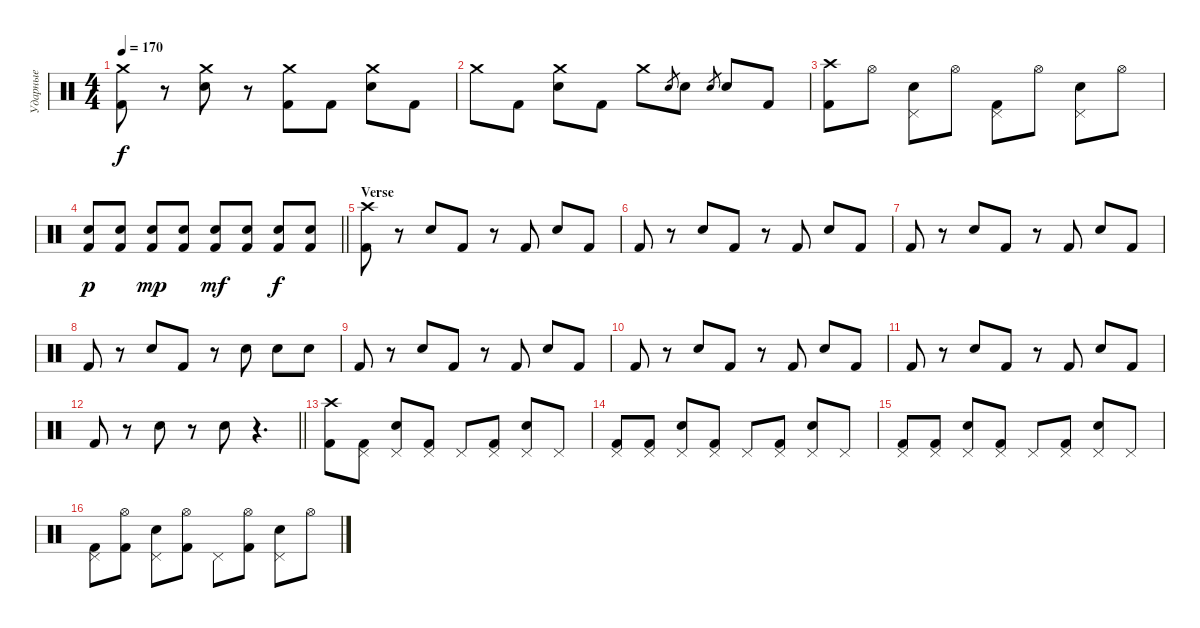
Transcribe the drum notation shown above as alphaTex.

\track ("Ударные" "Ударные") {instrument percussion}
\staff {score}
\articulation defaults
\ts (4 4)
\tempo 170
\clef neutral
\ks c
("Crash medium (hit)" "Kick (hit) 2").8{dy f} r.8 ("Crash medium (hit)" "Electric Snare (hit)").8 r.8 ("Crash medium (hit)" "Kick (hit) 2").8 "Kick (hit) 2".8 ("Crash medium (hit)" "Electric Snare (hit)").8 "Kick (hit) 2".8 |
"Crash medium (hit)".8 "Kick (hit) 2".8 ("Crash medium (hit)" "Electric Snare (hit)").8 "Kick (hit) 2".8 "Crash medium (hit)".8 "Electric Snare (hit)".8{gr} "Electric Snare (hit)".8 "Electric Snare (hit)".8{gr} "Electric Snare (hit)".8 "Kick (hit) 2".8 |
("Crash high (hit)" "Kick (hit) 2").8 "Hi-Hat (open)".8 ("Pedal Hi-Hat (hit)" "Electric Snare (hit)").8 "Hi-Hat (open)".8 ("Pedal Hi-Hat (hit)" "Kick (hit) 2").8 "Hi-Hat (open)".8 ("Pedal Hi-Hat (hit)" "Electric Snare (hit)").8 "Hi-Hat (open)".8 |
\barLineRight lightlight
("Electric Snare (hit)" "Kick (hit) 2").8{dy p} ("Electric Snare (hit)" "Kick (hit) 2").8 ("Electric Snare (hit)" "Kick (hit) 2").8{dy mp} ("Electric Snare (hit)" "Kick (hit) 2").8 ("Electric Snare (hit)" "Kick (hit) 2").8{dy mf} ("Electric Snare (hit)" "Kick (hit) 2").8 ("Electric Snare (hit)" "Kick (hit) 2").8{dy f} ("Electric Snare (hit)" "Kick (hit) 2").8 |
\section ("" "Verse")
("Crash high (hit)" "Kick (hit) 2").8 r.8 "Snare (hit) 2".8 "Kick (hit) 2".8 r.8 "Kick (hit) 2".8 "Snare (hit) 2".8 "Kick (hit) 2".8 |
"Kick (hit) 2".8 r.8 "Snare (hit) 2".8 "Kick (hit) 2".8 r.8 "Kick (hit) 2".8 "Snare (hit) 2".8 "Kick (hit) 2".8 |
"Kick (hit) 2".8 r.8 "Snare (hit) 2".8 "Kick (hit) 2".8 r.8 "Kick (hit) 2".8 "Snare (hit) 2".8 "Kick (hit) 2".8 |
"Kick (hit) 2".8 r.8 "Snare (hit) 2".8 "Kick (hit) 2".8 r.8 "Snare (hit) 2".8 "Snare (hit) 2".8 "Snare (hit) 2".8 |
"Kick (hit) 2".8 r.8 "Snare (hit) 2".8 "Kick (hit) 2".8 r.8 "Kick (hit) 2".8 "Snare (hit) 2".8 "Kick (hit) 2".8 |
"Kick (hit) 2".8 r.8 "Snare (hit) 2".8 "Kick (hit) 2".8 r.8 "Kick (hit) 2".8 "Snare (hit) 2".8 "Kick (hit) 2".8 |
"Kick (hit) 2".8 r.8 "Snare (hit) 2".8 "Kick (hit) 2".8 r.8 "Kick (hit) 2".8 "Snare (hit) 2".8 "Kick (hit) 2".8 |
\barLineRight lightlight "Kick (hit) 2".8
r.8 "Snare (hit) 2".8 r.8 "Snare (hit) 2".8 r.4{d} |
("Crash high (hit)" "Kick (hit) 2").8 ("Pedal Hi-Hat (hit)" "Kick (hit) 2").8 ("Pedal Hi-Hat (hit)" "Electric Snare (hit)").8 ("Pedal Hi-Hat (hit)" "Kick (hit) 2").8 "Pedal Hi-Hat (hit)".8 ("Pedal Hi-Hat (hit)" "Kick (hit) 2").8 ("Pedal Hi-Hat (hit)" "Electric Snare (hit)").8 "Pedal Hi-Hat (hit)".8 |
("Pedal Hi-Hat (hit)" "Kick (hit) 2").8 ("Pedal Hi-Hat (hit)" "Kick (hit) 2").8 ("Pedal Hi-Hat (hit)" "Electric Snare (hit)").8 ("Pedal Hi-Hat (hit)" "Kick (hit) 2").8 "Pedal Hi-Hat (hit)".8 ("Pedal Hi-Hat (hit)" "Kick (hit) 2").8 ("Pedal Hi-Hat (hit)" "Electric Snare (hit)").8 "Pedal Hi-Hat (hit)".8 |
("Pedal Hi-Hat (hit)" "Kick (hit) 2").8 ("Pedal Hi-Hat (hit)" "Kick (hit) 2").8 ("Pedal Hi-Hat (hit)" "Electric Snare (hit)").8 ("Pedal Hi-Hat (hit)" "Kick (hit) 2").8 "Pedal Hi-Hat (hit)".8 ("Pedal Hi-Hat (hit)" "Kick (hit) 2").8 ("Pedal Hi-Hat (hit)" "Electric Snare (hit)").8 "Pedal Hi-Hat (hit)".8 |
("Pedal Hi-Hat (hit)" "Kick (hit) 2").8 ("Hi-Hat (open)" "Kick (hit) 2").8 ("Pedal Hi-Hat (hit)" "Electric Snare (hit)").8 ("Hi-Hat (open)" "Kick (hit) 2").8 "Pedal Hi-Hat (hit)".8 ("Hi-Hat (open)" "Kick (hit) 2").8 ("Pedal Hi-Hat (hit)" "Electric Snare (hit)").8 "Hi-Hat (open)".8
